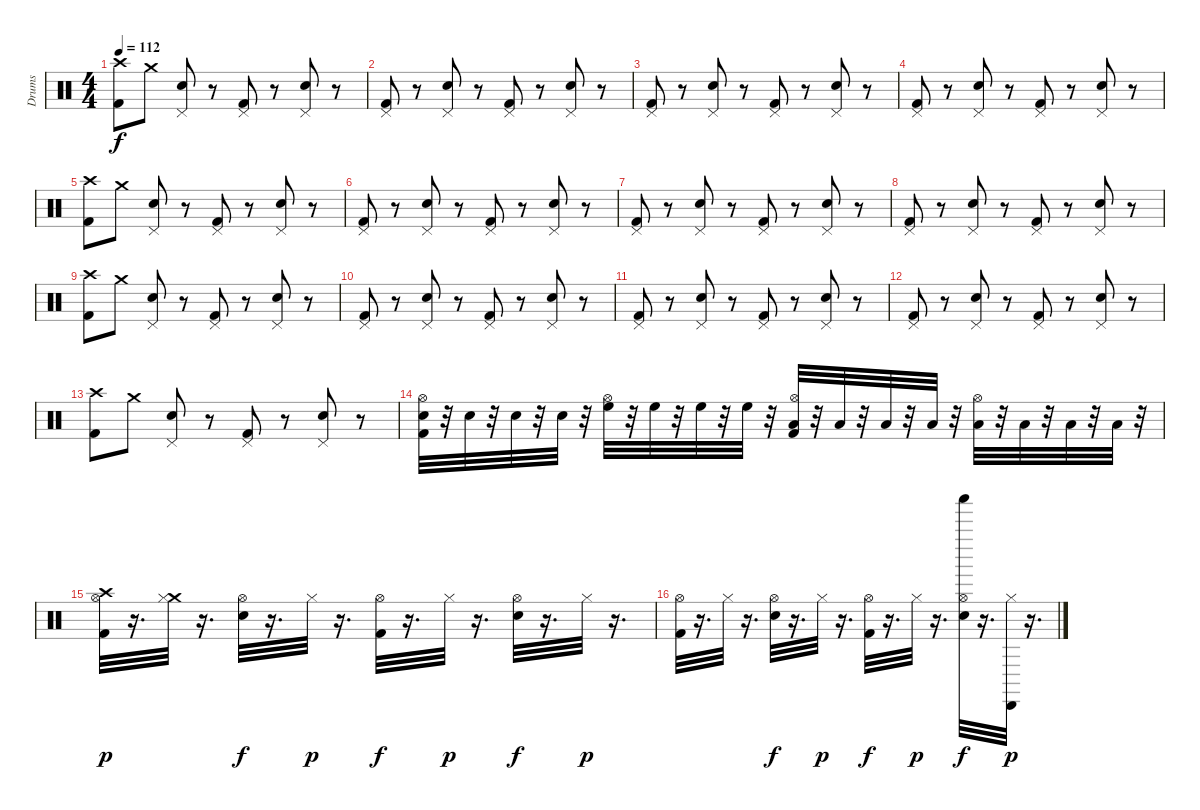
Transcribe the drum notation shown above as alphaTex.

\track ("Drums" "Drums") {instrument percussion}
\staff {score}
\articulation defaults
\ts (4 4)
\tempo 112
\clef neutral
\ks c
("Crash high (hit)" "Kick (hit) 2").8{dy f} "Crash medium (hit)".8 ("Pedal Hi-Hat (hit)" "Snare (hit) 2").8 r.8 ("Pedal Hi-Hat (hit)" "Kick (hit) 2").8 r.8 ("Pedal Hi-Hat (hit)" "Snare (hit) 2").8 r.8 |
("Pedal Hi-Hat (hit)" "Kick (hit) 2").8 r.8 ("Pedal Hi-Hat (hit)" "Snare (hit) 2").8 r.8 ("Pedal Hi-Hat (hit)" "Kick (hit) 2").8 r.8 ("Pedal Hi-Hat (hit)" "Snare (hit) 2").8 r.8 |
("Pedal Hi-Hat (hit)" "Kick (hit) 2").8 r.8 ("Pedal Hi-Hat (hit)" "Snare (hit) 2").8 r.8 ("Pedal Hi-Hat (hit)" "Kick (hit) 2").8 r.8 ("Pedal Hi-Hat (hit)" "Snare (hit) 2").8 r.8 |
("Pedal Hi-Hat (hit)" "Kick (hit) 2").8 r.8 ("Pedal Hi-Hat (hit)" "Snare (hit) 2").8 r.8 ("Pedal Hi-Hat (hit)" "Kick (hit) 2").8 r.8 ("Pedal Hi-Hat (hit)" "Snare (hit) 2").8 r.8 |
("Crash high (hit)" "Kick (hit) 2").8 "Crash medium (hit)".8 ("Pedal Hi-Hat (hit)" "Snare (hit) 2").8 r.8 ("Pedal Hi-Hat (hit)" "Kick (hit) 2").8 r.8 ("Pedal Hi-Hat (hit)" "Snare (hit) 2").8 r.8 |
("Pedal Hi-Hat (hit)" "Kick (hit) 2").8 r.8 ("Pedal Hi-Hat (hit)" "Snare (hit) 2").8 r.8 ("Pedal Hi-Hat (hit)" "Kick (hit) 2").8 r.8 ("Pedal Hi-Hat (hit)" "Snare (hit) 2").8 r.8 |
("Pedal Hi-Hat (hit)" "Kick (hit) 2").8 r.8 ("Pedal Hi-Hat (hit)" "Snare (hit) 2").8 r.8 ("Pedal Hi-Hat (hit)" "Kick (hit) 2").8 r.8 ("Pedal Hi-Hat (hit)" "Snare (hit) 2").8 r.8 |
("Pedal Hi-Hat (hit)" "Kick (hit) 2").8 r.8 ("Pedal Hi-Hat (hit)" "Snare (hit) 2").8 r.8 ("Pedal Hi-Hat (hit)" "Kick (hit) 2").8 r.8 ("Pedal Hi-Hat (hit)" "Snare (hit) 2").8 r.8 |
("Crash high (hit)" "Kick (hit) 2").8 "Crash medium (hit)".8 ("Pedal Hi-Hat (hit)" "Snare (hit) 2").8 r.8 ("Pedal Hi-Hat (hit)" "Kick (hit) 2").8 r.8 ("Pedal Hi-Hat (hit)" "Snare (hit) 2").8 r.8 |
("Pedal Hi-Hat (hit)" "Kick (hit) 2").8 r.8 ("Pedal Hi-Hat (hit)" "Snare (hit) 2").8 r.8 ("Pedal Hi-Hat (hit)" "Kick (hit) 2").8 r.8 ("Pedal Hi-Hat (hit)" "Snare (hit) 2").8 r.8 |
("Pedal Hi-Hat (hit)" "Kick (hit) 2").8 r.8 ("Pedal Hi-Hat (hit)" "Snare (hit) 2").8 r.8 ("Pedal Hi-Hat (hit)" "Kick (hit) 2").8 r.8 ("Pedal Hi-Hat (hit)" "Snare (hit) 2").8 r.8 |
("Pedal Hi-Hat (hit)" "Kick (hit) 2").8 r.8 ("Pedal Hi-Hat (hit)" "Snare (hit) 2").8 r.8 ("Pedal Hi-Hat (hit)" "Kick (hit) 2").8 r.8 ("Pedal Hi-Hat (hit)" "Snare (hit) 2").8 r.8 |
("Crash high (hit)" "Kick (hit) 2").8 "Crash medium (hit)".8 ("Pedal Hi-Hat (hit)" "Snare (hit) 2").8 r.8 ("Pedal Hi-Hat (hit)" "Kick (hit) 2").8 r.8 ("Pedal Hi-Hat (hit)" "Snare (hit) 2").8 r.8 |
("Hi-Hat (open)" "Snare (hit) 2" "Kick (hit) 2").32 r.32 "Snare (hit) 2".32 r.32 "Snare (hit) 2".32 r.32 "Snare (hit) 2".32 r.32 ("High Floor Tom (hit)" "Hi-Hat (open)").32 r.32 "High Floor Tom (hit)".32 r.32 "High Floor Tom (hit)".32 r.32 "High Floor Tom (hit)".32 r.32 ("Low Tom (hit)" "Hi-Hat (open)" "Kick (hit) 2").32 r.32 "Low Tom (hit)".32 r.32 "Low Tom (hit)".32 r.32 "Low Tom (hit)".32 r.32 ("Hi-Hat (open)" "Low Floor Tom (hit)").32 r.32 "Low Floor Tom (hit)".32 r.32 "Low Floor Tom (hit)".32 r.32 "Low Floor Tom (hit)".32 r.32 |
("Crash high (hit)" "Hi-Hat (open)" "Kick (hit) 2").32{dy p} r.16{d} ("Crash medium (hit)" "Hi-Hat (closed)").32 r.16{d} ("Hi-Hat (open)" "Snare (hit) 2").32{dy f} r.16{d} "Hi-Hat (closed)".32{dy p} r.16{d} ("Hi-Hat (open)" "Kick (hit) 2").32{dy f} r.16{d} "Hi-Hat (closed)".32{dy p} r.16{d} ("Hi-Hat (open)" "Snare (hit) 2").32{dy f} r.16{d} "Hi-Hat (closed)".32{dy p} r.16{d} |
("Hi-Hat (open)" "Kick (hit) 2").32 r.16{d} "Hi-Hat (closed)".32 r.16{d} ("Hi-Hat (open)" "Snare (hit) 2").32{dy f} r.16{d} "Hi-Hat (closed)".32{dy p} r.16{d} ("Hi-Hat (open)" "Kick (hit) 2").32{dy f} r.16{d} "Hi-Hat (closed)".32{dy p} r.16{d} ("Shaker (hit)" "Hi-Hat (open)" "Snare (hit) 2").32{dy f} r.16{d} ("Hi-Hat (closed)" "Cabasa (hit)").32{dy p} r.16{d}
